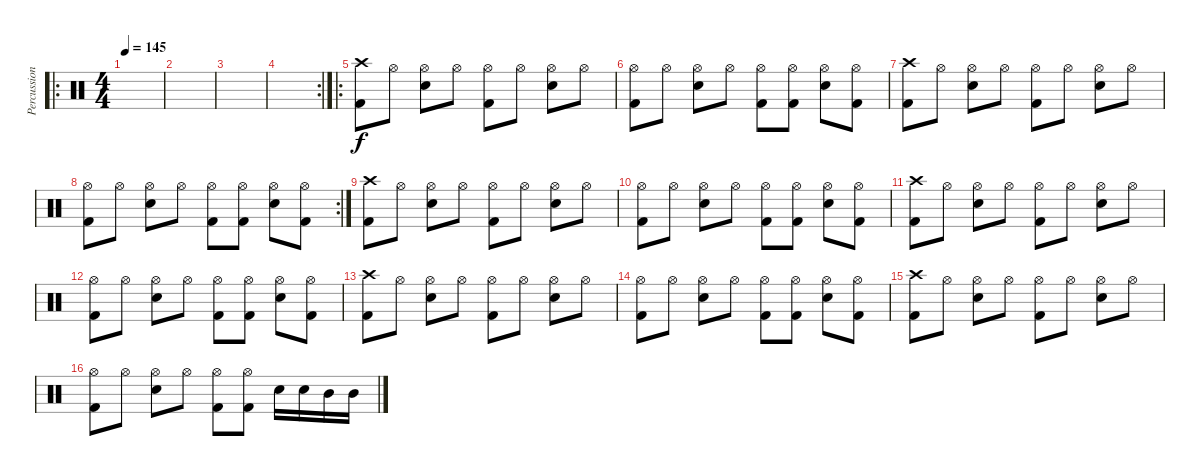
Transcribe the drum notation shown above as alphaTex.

\track ("Percussion" "Percussion") {instrument percussion}
\staff {score}
\articulation defaults
\ro
\ts (4 4)
\tempo 145
\clef neutral
\ks c
|
|
|
\rc 2
|
\ro
("Kick (hit) 2" "Crash high (hit)").8 "Hi-Hat (open)".8 ("Electric Snare (hit)" "Hi-Hat (open)").8 "Hi-Hat (open)".8 ("Kick (hit) 2" "Hi-Hat (open)").8 "Hi-Hat (open)".8 ("Electric Snare (hit)" "Hi-Hat (open)").8 "Hi-Hat (open)".8 |
("Kick (hit) 2" "Hi-Hat (open)").8 "Hi-Hat (open)".8 ("Electric Snare (hit)" "Hi-Hat (open)").8 "Hi-Hat (open)".8 ("Kick (hit) 2" "Hi-Hat (open)").8 ("Kick (hit) 2" "Hi-Hat (open)").8 ("Electric Snare (hit)" "Hi-Hat (open)").8 ("Kick (hit) 2" "Hi-Hat (open)").8 |
("Kick (hit) 2" "Crash high (hit)").8 "Hi-Hat (open)".8 ("Electric Snare (hit)" "Hi-Hat (open)").8 "Hi-Hat (open)".8 ("Kick (hit) 2" "Hi-Hat (open)").8 "Hi-Hat (open)".8 ("Electric Snare (hit)" "Hi-Hat (open)").8 "Hi-Hat (open)".8 |
\rc 2
("Kick (hit) 2" "Hi-Hat (open)").8 "Hi-Hat (open)".8 ("Electric Snare (hit)" "Hi-Hat (open)").8 "Hi-Hat (open)".8 ("Kick (hit) 2" "Hi-Hat (open)").8 ("Kick (hit) 2" "Hi-Hat (open)").8 ("Electric Snare (hit)" "Hi-Hat (open)").8 ("Kick (hit) 2" "Hi-Hat (open)").8 |
("Kick (hit) 2" "Crash high (hit)").8 "Hi-Hat (open)".8 ("Electric Snare (hit)" "Hi-Hat (open)").8 "Hi-Hat (open)".8 ("Kick (hit) 2" "Hi-Hat (open)").8 "Hi-Hat (open)".8 ("Electric Snare (hit)" "Hi-Hat (open)").8 "Hi-Hat (open)".8 |
("Kick (hit) 2" "Hi-Hat (open)").8 "Hi-Hat (open)".8 ("Electric Snare (hit)" "Hi-Hat (open)").8 "Hi-Hat (open)".8 ("Kick (hit) 2" "Hi-Hat (open)").8 ("Kick (hit) 2" "Hi-Hat (open)").8 ("Electric Snare (hit)" "Hi-Hat (open)").8 ("Kick (hit) 2" "Hi-Hat (open)").8 |
("Kick (hit) 2" "Crash high (hit)").8 "Hi-Hat (open)".8 ("Electric Snare (hit)" "Hi-Hat (open)").8 "Hi-Hat (open)".8 ("Kick (hit) 2" "Hi-Hat (open)").8 "Hi-Hat (open)".8 ("Electric Snare (hit)" "Hi-Hat (open)").8 "Hi-Hat (open)".8 |
("Kick (hit) 2" "Hi-Hat (open)").8 "Hi-Hat (open)".8 ("Electric Snare (hit)" "Hi-Hat (open)").8 "Hi-Hat (open)".8 ("Kick (hit) 2" "Hi-Hat (open)").8 ("Kick (hit) 2" "Hi-Hat (open)").8 ("Electric Snare (hit)" "Hi-Hat (open)").8 ("Kick (hit) 2" "Hi-Hat (open)").8 |
("Kick (hit) 2" "Crash high (hit)").8 "Hi-Hat (open)".8 ("Electric Snare (hit)" "Hi-Hat (open)").8 "Hi-Hat (open)".8 ("Kick (hit) 2" "Hi-Hat (open)").8 "Hi-Hat (open)".8 ("Electric Snare (hit)" "Hi-Hat (open)").8 "Hi-Hat (open)".8 |
("Kick (hit) 2" "Hi-Hat (open)").8 "Hi-Hat (open)".8 ("Electric Snare (hit)" "Hi-Hat (open)").8 "Hi-Hat (open)".8 ("Kick (hit) 2" "Hi-Hat (open)").8 ("Kick (hit) 2" "Hi-Hat (open)").8 ("Electric Snare (hit)" "Hi-Hat (open)").8 ("Kick (hit) 2" "Hi-Hat (open)").8 |
("Kick (hit) 2" "Crash high (hit)").8 "Hi-Hat (open)".8 ("Electric Snare (hit)" "Hi-Hat (open)").8 "Hi-Hat (open)".8 ("Kick (hit) 2" "Hi-Hat (open)").8 "Hi-Hat (open)".8 ("Electric Snare (hit)" "Hi-Hat (open)").8 "Hi-Hat (open)".8 |
("Kick (hit) 2" "Hi-Hat (open)").8 "Hi-Hat (open)".8 ("Electric Snare (hit)" "Hi-Hat (open)").8 "Hi-Hat (open)".8 ("Kick (hit) 2" "Hi-Hat (open)").8 ("Kick (hit) 2" "Hi-Hat (open)").8 "Electric Snare (hit)".16 "Electric Snare (hit)".16 "Mid Tom (hit)".16 "Mid Tom (hit)".16
